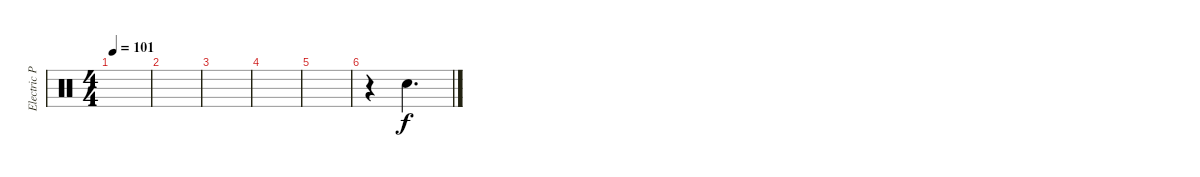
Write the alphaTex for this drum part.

\track ("Electric Percussion" "Electric P") {instrument percussion}
\staff {score}
\articulation defaults
\ts (4 4)
\tempo 101
\clef neutral
\ks c
|
|
|
|
|
r.4 "Metronome (bell)".2{d}
